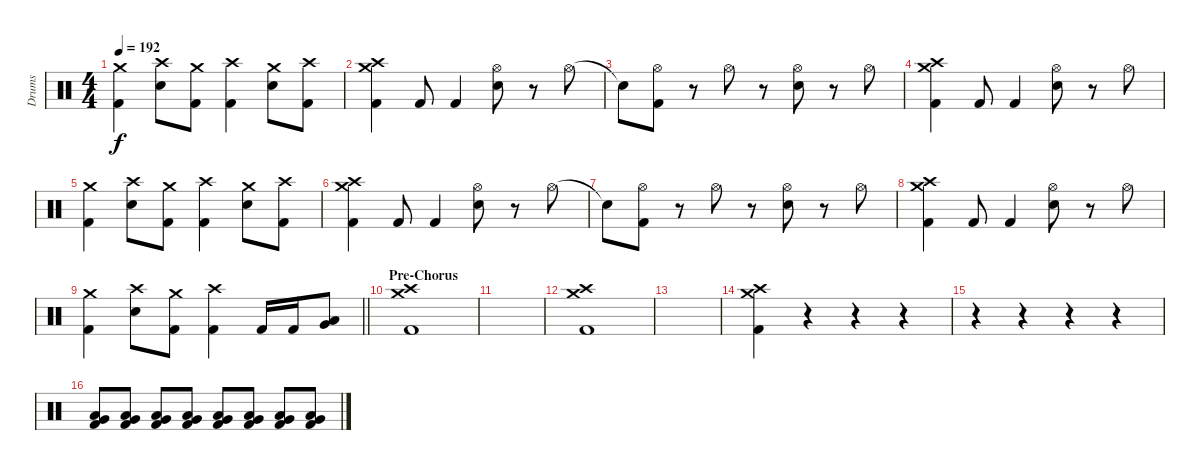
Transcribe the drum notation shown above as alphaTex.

\track ("Drums" "Drums") {instrument percussion}
\staff {score}
\articulation defaults
\ts (4 4)
\tempo 192
\clef neutral
\ks c
("Crash medium (hit)" "Kick (hit) 2").4{dy f} ("Crash high (hit)" "Electric Snare (hit)").8 ("Crash medium (hit)" "Kick (hit) 2").8 ("Crash high (hit)" "Kick (hit) 2").4 ("Crash medium (hit)" "Electric Snare (hit)").8 ("Crash high (hit)" "Kick (hit) 2").8 |
("Crash medium (hit)" "Crash high (hit)" "Kick (hit) 2").4 "Kick (hit) 2".8 "Kick (hit) 2".4 ("Hi-Hat (open)" "Electric Snare (hit)").8 r.8 "Hi-Hat (open)".8 |
"Snare (hit)"{t}.8 ("Hi-Hat (open)" "Kick (hit) 2").8 r.8 "Hi-Hat (open)".8 r.8 ("Hi-Hat (open)" "Electric Snare (hit)").8 r.8 "Hi-Hat (open)".8 |
("Crash medium (hit)" "Crash high (hit)" "Kick (hit) 2").4 "Kick (hit) 2".8 "Kick (hit) 2".4 ("Hi-Hat (open)" "Electric Snare (hit)").8 r.8 "Hi-Hat (open)".8 |
("Crash medium (hit)" "Kick (hit) 2").4 ("Crash high (hit)" "Electric Snare (hit)").8 ("Crash medium (hit)" "Kick (hit) 2").8 ("Crash high (hit)" "Kick (hit) 2").4 ("Crash medium (hit)" "Electric Snare (hit)").8 ("Crash high (hit)" "Kick (hit) 2").8 |
("Crash medium (hit)" "Crash high (hit)" "Kick (hit) 2").4 "Kick (hit) 2".8 "Kick (hit) 2".4 ("Hi-Hat (open)" "Electric Snare (hit)").8 r.8 "Hi-Hat (open)".8 |
"Snare (hit)"{t}.8 ("Hi-Hat (open)" "Kick (hit) 2").8 r.8 "Hi-Hat (open)".8 r.8 ("Hi-Hat (open)" "Electric Snare (hit)").8 r.8 "Hi-Hat (open)".8 |
("Crash medium (hit)" "Crash high (hit)" "Kick (hit) 2").4 "Kick (hit) 2".8 "Kick (hit) 2".4 ("Hi-Hat (open)" "Electric Snare (hit)").8 r.8 "Hi-Hat (open)".8 |
\barLineRight lightlight
("Crash medium (hit)" "Kick (hit) 2").4 ("Crash high (hit)" "Electric Snare (hit)").8 ("Crash medium (hit)" "Kick (hit) 2").8 ("Crash high (hit)" "Kick (hit) 2").4 "Kick (hit) 2".16 "Kick (hit) 2".16 ("Very Low Tom (hit)" "Low Floor Tom (hit)").8 |
\section ("" "Pre-Chorus")
("Crash high (hit)" "Crash medium (hit)" "Kick (hit) 2").1 |
|
("Crash high (hit)" "Crash medium (hit)" "Kick (hit) 2").1 |
|
("Crash high (hit)" "Crash medium (hit)" "Kick (hit) 2").4 r.4 r.4 r.4 |
r.4{volume 1} r.4 r.4 r.4 |
("Very Low Tom (hit)" "Low Floor Tom (hit)" "Kick (hit) 2").8{volume 13} ("Very Low Tom (hit)" "Low Floor Tom (hit)" "Kick (hit) 2").8 ("Very Low Tom (hit)" "Low Floor Tom (hit)" "Kick (hit) 2").8 ("Very Low Tom (hit)" "Low Floor Tom (hit)" "Kick (hit) 2").8 ("Very Low Tom (hit)" "Low Floor Tom (hit)" "Kick (hit) 2").8 ("Very Low Tom (hit)" "Low Floor Tom (hit)" "Kick (hit) 2").8 ("Very Low Tom (hit)" "Low Floor Tom (hit)" "Kick (hit) 2").8 ("Very Low Tom (hit)" "Low Floor Tom (hit)" "Kick (hit) 2").8
